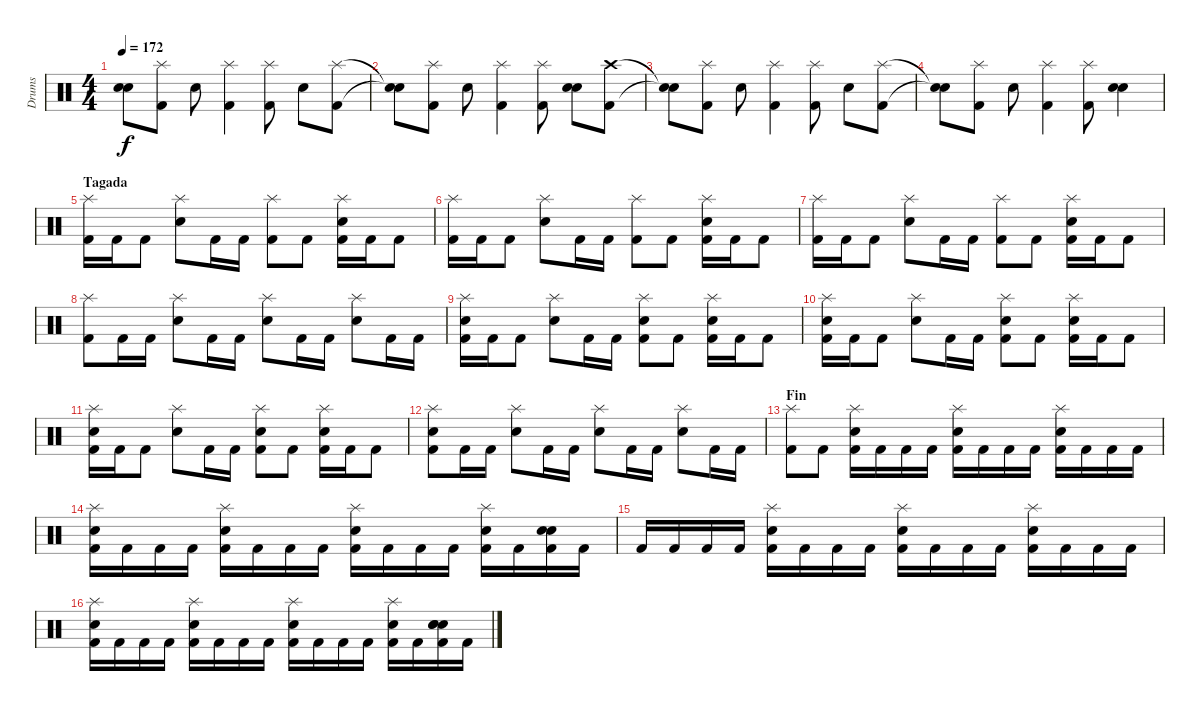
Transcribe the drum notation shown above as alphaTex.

\track ("Drums" "Drums") {instrument percussion}
\staff {score}
\articulation defaults
\ts (4 4)
\tempo 172
\clef neutral
\ks c
("Snare (hit)"{t} "Snare (hit)"{t}).8{dy f} ("Splash (hit)" "Kick (hit) 2").8 "Electric Snare (hit)".8 ("Splash (hit)" "Kick (hit) 2").4 ("Splash (hit)" "Kick (hit) 2").8 "Electric Snare (hit)".8 ("Splash (hit)" "Kick (hit) 2").8 |
("Snare (hit)"{t} "Snare (hit)"{t}).8 ("Splash (hit)" "Kick (hit) 2").8 "Electric Snare (hit)".8 ("Splash (hit)" "Kick (hit) 2").4 ("Splash (hit)" "Kick (hit) 2").8 ("Electric Snare (hit)" "Electric Snare (hit)").8 ("Crash high (hit)" "Kick (hit) 2").8 |
("Snare (hit)"{t} "Snare (hit)"{t}).8 ("Splash (hit)" "Kick (hit) 2").8 "Electric Snare (hit)".8 ("Splash (hit)" "Kick (hit) 2").4 ("Splash (hit)" "Kick (hit) 2").8 "Electric Snare (hit)".8 ("Splash (hit)" "Kick (hit) 2").8 |
("Snare (hit)"{t} "Snare (hit)"{t}).8 ("Splash (hit)" "Kick (hit) 2").8 "Electric Snare (hit)".8 ("Splash (hit)" "Kick (hit) 2").4 ("Splash (hit)" "Kick (hit) 2").8 ("Electric Snare (hit)" "Electric Snare (hit)").4 |
\section ("" "Tagada")
("Splash (hit)" "Kick (hit) 2").16 "Kick (hit) 2".16 "Kick (hit) 2".8 ("Splash (hit)" "Electric Snare (hit)").8 "Kick (hit) 2".16 "Kick (hit) 2".16 ("Splash (hit)" "Kick (hit) 2").8 "Kick (hit) 2".8 ("Splash (hit)" "Electric Snare (hit)" "Kick (hit) 2").16 "Kick (hit) 2".16 "Kick (hit) 2".8 |
("Splash (hit)" "Kick (hit) 2").16 "Kick (hit) 2".16 "Kick (hit) 2".8 ("Splash (hit)" "Electric Snare (hit)").8 "Kick (hit) 2".16 "Kick (hit) 2".16 ("Splash (hit)" "Kick (hit) 2").8 "Kick (hit) 2".8 ("Splash (hit)" "Electric Snare (hit)" "Kick (hit) 2").16 "Kick (hit) 2".16 "Kick (hit) 2".8 |
("Splash (hit)" "Kick (hit) 2").16 "Kick (hit) 2".16 "Kick (hit) 2".8 ("Splash (hit)" "Electric Snare (hit)").8 "Kick (hit) 2".16 "Kick (hit) 2".16 ("Splash (hit)" "Kick (hit) 2").8 "Kick (hit) 2".8 ("Splash (hit)" "Electric Snare (hit)" "Kick (hit) 2").16 "Kick (hit) 2".16 "Kick (hit) 2".8 |
("Splash (hit)" "Kick (hit) 2").8 "Kick (hit) 2".16 "Kick (hit) 2".16 ("Splash (hit)" "Electric Snare (hit)").8 "Kick (hit) 2".16 "Kick (hit) 2".16 ("Splash (hit)" "Electric Snare (hit)").8 "Kick (hit) 2".16 "Kick (hit) 2".16 ("Splash (hit)" "Electric Snare (hit)").8 "Kick (hit) 2".16 "Kick (hit) 2".16 |
("Splash (hit)" "Electric Snare (hit)" "Kick (hit) 2").16 "Kick (hit) 2".16 "Kick (hit) 2".8 ("Splash (hit)" "Electric Snare (hit)").8 "Kick (hit) 2".16 "Kick (hit) 2".16 ("Splash (hit)" "Electric Snare (hit)" "Kick (hit) 2").8 "Kick (hit) 2".8 ("Splash (hit)" "Electric Snare (hit)" "Kick (hit) 2").16 "Kick (hit) 2".16 "Kick (hit) 2".8 |
("Splash (hit)" "Electric Snare (hit)" "Kick (hit) 2").16 "Kick (hit) 2".16 "Kick (hit) 2".8 ("Splash (hit)" "Electric Snare (hit)").8 "Kick (hit) 2".16 "Kick (hit) 2".16 ("Splash (hit)" "Electric Snare (hit)" "Kick (hit) 2").8 "Kick (hit) 2".8 ("Splash (hit)" "Electric Snare (hit)" "Kick (hit) 2").16 "Kick (hit) 2".16 "Kick (hit) 2".8 |
("Splash (hit)" "Electric Snare (hit)" "Kick (hit) 2").16 "Kick (hit) 2".16 "Kick (hit) 2".8 ("Splash (hit)" "Electric Snare (hit)").8 "Kick (hit) 2".16 "Kick (hit) 2".16 ("Splash (hit)" "Electric Snare (hit)" "Kick (hit) 2").8 "Kick (hit) 2".8 ("Splash (hit)" "Electric Snare (hit)" "Kick (hit) 2").16 "Kick (hit) 2".16 "Kick (hit) 2".8 |
("Splash (hit)" "Electric Snare (hit)" "Kick (hit) 2").8 "Kick (hit) 2".16 "Kick (hit) 2".16 ("Splash (hit)" "Electric Snare (hit)").8 "Kick (hit) 2".16 "Kick (hit) 2".16 ("Splash (hit)" "Electric Snare (hit)").8 "Kick (hit) 2".16 "Kick (hit) 2".16 ("Splash (hit)" "Electric Snare (hit)").8 "Kick (hit) 2".16 "Kick (hit) 2".16 |
\section ("" "Fin")
("Splash (hit)" "Kick (hit) 2").8 "Kick (hit) 2".8 ("Splash (hit)" "Electric Snare (hit)" "Kick (hit) 2").16 "Kick (hit) 2".16 "Kick (hit) 2".16 "Kick (hit) 2".16 ("Splash (hit)" "Electric Snare (hit)" "Kick (hit) 2").16 "Kick (hit) 2".16 "Kick (hit) 2".16 "Kick (hit) 2".16 ("Splash (hit)" "Electric Snare (hit)" "Kick (hit) 2").16 "Kick (hit) 2".16 "Kick (hit) 2".16 "Kick (hit) 2".16 |
("Splash (hit)" "Electric Snare (hit)" "Kick (hit) 2").16 "Kick (hit) 2".16 "Kick (hit) 2".16 "Kick (hit) 2".16 ("Splash (hit)" "Electric Snare (hit)" "Kick (hit) 2").16 "Kick (hit) 2".16 "Kick (hit) 2".16 "Kick (hit) 2".16 ("Splash (hit)" "Electric Snare (hit)" "Kick (hit) 2").16 "Kick (hit) 2".16 "Kick (hit) 2".16 "Kick (hit) 2".16 ("Splash (hit)" "Electric Snare (hit)" "Kick (hit) 2").16 "Kick (hit) 2".16 ("Electric Snare (hit)" "Electric Snare (hit)" "Kick (hit) 2").16 "Kick (hit) 2".16 |
"Kick (hit) 2".16 "Kick (hit) 2".16 "Kick (hit) 2".16 "Kick (hit) 2".16 ("Splash (hit)" "Electric Snare (hit)" "Kick (hit) 2").16 "Kick (hit) 2".16 "Kick (hit) 2".16 "Kick (hit) 2".16 ("Splash (hit)" "Electric Snare (hit)" "Kick (hit) 2").16 "Kick (hit) 2".16 "Kick (hit) 2".16 "Kick (hit) 2".16 ("Splash (hit)" "Electric Snare (hit)" "Kick (hit) 2").16 "Kick (hit) 2".16 "Kick (hit) 2".16 "Kick (hit) 2".16 |
("Splash (hit)" "Electric Snare (hit)" "Kick (hit) 2").16 "Kick (hit) 2".16 "Kick (hit) 2".16 "Kick (hit) 2".16 ("Splash (hit)" "Electric Snare (hit)" "Kick (hit) 2").16 "Kick (hit) 2".16 "Kick (hit) 2".16 "Kick (hit) 2".16 ("Splash (hit)" "Electric Snare (hit)" "Kick (hit) 2").16 "Kick (hit) 2".16 "Kick (hit) 2".16 "Kick (hit) 2".16 ("Splash (hit)" "Electric Snare (hit)" "Kick (hit) 2").16 "Kick (hit) 2".16 ("Electric Snare (hit)" "Electric Snare (hit)" "Electric Snare (hit)" "Kick (hit) 2").16 "Kick (hit) 2".16
